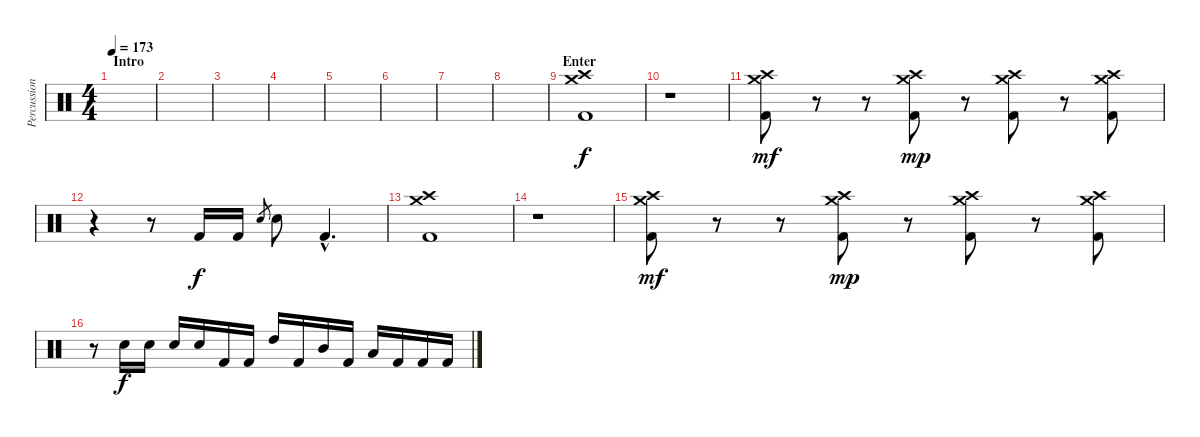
\track ("Percussions" "Percussion") {instrument percussion}
\staff {score}
\articulation defaults
\ts (4 4)
\section ("" "Intro")
\tempo 173
\clef neutral
\ks c
|
|
|
|
|
|
|
|
\section ("" "Enter")
("Crash high (hit)" "Crash medium (hit)" "Kick (hit) 2").1 |
r.1 |
("Crash high (hit)" "Crash medium (hit)" "Kick (hit) 2").8{dy mf} r.8 r.8 ("Crash medium (hit)" "Crash high (hit)" "Kick (hit) 2").8{dy mp} r.8 ("Crash high (hit)" "Crash medium (hit)" "Kick (hit) 2").8 r.8 ("Crash medium (hit)" "Crash high (hit)" "Kick (hit) 2").8 |
r.4 r.8 "Kick (hit) 2".16{dy f} "Kick (hit) 2".16 "Electric Snare (hit)".8{gr} "Electric Snare (hit)".8 "Kick (hit) 2"{hac}.4{d} |
("Crash high (hit)" "Crash medium (hit)" "Kick (hit) 2").1 |
r.1 |
("Crash high (hit)" "Crash medium (hit)" "Kick (hit) 2").8{dy mf} r.8 r.8 ("Crash medium (hit)" "Crash high (hit)" "Kick (hit) 2").8{dy mp} r.8 ("Crash high (hit)" "Crash medium (hit)" "Kick (hit) 2").8 r.8 ("Crash medium (hit)" "Crash high (hit)" "Kick (hit) 2").8 |
r.8 "Electric Snare (hit)".16{dy f} "Electric Snare (hit)".16 "Electric Snare (hit)".16 "Electric Snare (hit)".16 "Kick (hit) 2".16 "Kick (hit) 2".16 "High Tom (hit)".16 "Kick (hit) 2".16 "Mid Tom (hit)".16 "Kick (hit) 2".16 "Low Tom (hit)".16 "Kick (hit) 2".16 "Kick (hit) 2".16 "Kick (hit) 2".16
